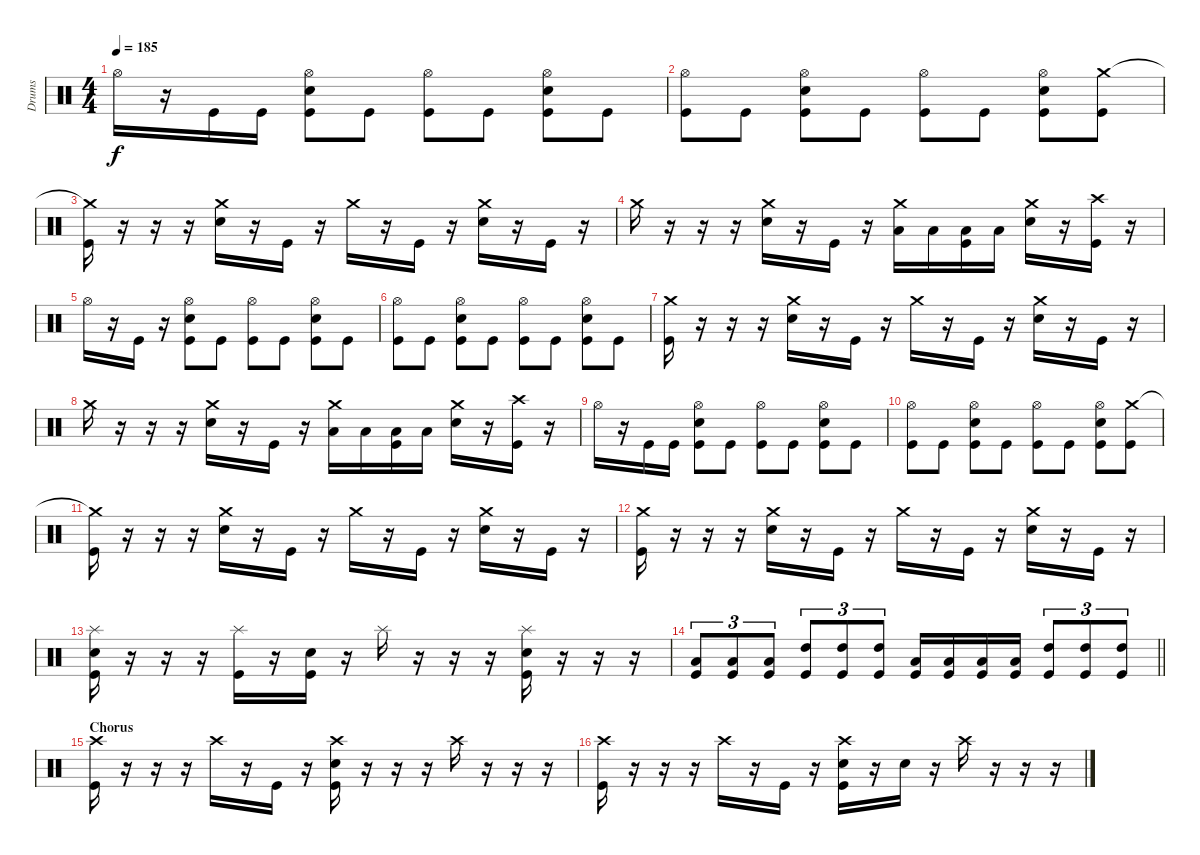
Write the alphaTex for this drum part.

\track ("Drums" "Drums") {instrument percussion}
\staff {score}
\articulation defaults
\ts (4 4)
\tempo 185
\clef neutral
\ks c "Hi-Hat (open)".16{dy f}
r.16 "Kick (hit)".16 "Kick (hit)".16 ("Hi-Hat (open)" "Snare (hit) 2" "Kick (hit)").8 "Kick (hit)".8 ("Hi-Hat (open)" "Kick (hit)").8 "Kick (hit)".8 ("Hi-Hat (open)" "Snare (hit) 2" "Kick (hit)").8 "Kick (hit)".8 |
("Hi-Hat (open)" "Kick (hit)").8 "Kick (hit)".8 ("Hi-Hat (open)" "Snare (hit) 2" "Kick (hit)").8 "Kick (hit)".8 ("Hi-Hat (open)" "Kick (hit)").8 "Kick (hit)".8 ("Hi-Hat (open)" "Snare (hit) 2" "Kick (hit)").8 ("Crash medium (hit)" "Kick (hit)").8 |
("Crash medium (hit)"{t} "Kick (hit)").16 r.16 r.16 r.16 ("Crash medium (hit)" "Snare (hit) 2").16 r.16 "Kick (hit)".16 r.16 "Crash medium (hit)".16 r.16 "Kick (hit)".16 r.16 ("Crash medium (hit)" "Snare (hit) 2").16 r.16 "Kick (hit)".16 r.16 |
"Crash medium (hit)".16 r.16 r.16 r.16 ("Crash medium (hit)" "Snare (hit) 2").16 r.16 "Kick (hit)".16 r.16 ("Crash medium (hit)" "Low Floor Tom (hit)").16 "Low Floor Tom (hit)".16 ("Low Floor Tom (hit)" "Kick (hit)").16 "Low Floor Tom (hit)".16 ("Crash medium (hit)" "Snare (hit) 2").16 r.16 ("Crash high (hit)" "Kick (hit)").16 r.16 |
"Hi-Hat (open)".16 r.16 "Kick (hit)".16 r.16 ("Hi-Hat (open)" "Snare (hit) 2" "Kick (hit)").8 "Kick (hit)".8 ("Hi-Hat (open)" "Kick (hit)").8 "Kick (hit)".8 ("Hi-Hat (open)" "Snare (hit) 2" "Kick (hit)").8 "Kick (hit)".8 |
("Hi-Hat (open)" "Kick (hit)").8 "Kick (hit)".8 ("Hi-Hat (open)" "Snare (hit) 2" "Kick (hit)").8 "Kick (hit)".8 ("Hi-Hat (open)" "Kick (hit)").8 "Kick (hit)".8 ("Hi-Hat (open)" "Snare (hit) 2" "Kick (hit)").8 "Kick (hit)".8 |
("Crash medium (hit)" "Kick (hit)").16 r.16 r.16 r.16 ("Crash medium (hit)" "Snare (hit) 2").16 r.16 "Kick (hit)".16 r.16 "Crash medium (hit)".16 r.16 "Kick (hit)".16 r.16 ("Crash medium (hit)" "Snare (hit) 2").16 r.16 "Kick (hit)".16 r.16 |
"Crash medium (hit)".16 r.16 r.16 r.16 ("Crash medium (hit)" "Snare (hit) 2").16 r.16 "Kick (hit)".16 r.16 ("Crash medium (hit)" "Low Floor Tom (hit)").16 "Low Floor Tom (hit)".16 ("Low Floor Tom (hit)" "Kick (hit)").16 "Low Floor Tom (hit)".16 ("Crash medium (hit)" "Snare (hit) 2").16 r.16 ("Crash high (hit)" "Kick (hit)").16 r.16 |
"Hi-Hat (open)".16 r.16 "Kick (hit)".16 "Kick (hit)".16 ("Hi-Hat (open)" "Snare (hit) 2" "Kick (hit)").8 "Kick (hit)".8 ("Hi-Hat (open)" "Kick (hit)").8 "Kick (hit)".8 ("Hi-Hat (open)" "Snare (hit) 2" "Kick (hit)").8 "Kick (hit)".8 |
("Hi-Hat (open)" "Kick (hit)").8 "Kick (hit)".8 ("Hi-Hat (open)" "Snare (hit) 2" "Kick (hit)").8 "Kick (hit)".8 ("Hi-Hat (open)" "Kick (hit)").8 "Kick (hit)".8 ("Hi-Hat (open)" "Snare (hit) 2" "Kick (hit)").8 ("Crash medium (hit)" "Kick (hit)").8 |
("Crash medium (hit)"{t} "Kick (hit)").16 r.16 r.16 r.16 ("Crash medium (hit)" "Snare (hit) 2").16 r.16 "Kick (hit)".16 r.16 "Crash medium (hit)".16 r.16 "Kick (hit)".16 r.16 ("Crash medium (hit)" "Snare (hit) 2").16 r.16 "Kick (hit)".16 r.16 |
("Crash medium (hit)" "Kick (hit)").16 r.16 r.16 r.16 ("Crash medium (hit)" "Snare (hit) 2").16 r.16 "Kick (hit)".16 r.16 "Crash medium (hit)".16 r.16 "Kick (hit)".16 r.16 ("Crash medium (hit)" "Snare (hit) 2").16 r.16 "Kick (hit)".16 r.16 |
("Splash (hit)" "Snare (hit) 2" "Kick (hit)").16 r.16 r.16 r.16 ("Splash (hit)" "Kick (hit)").16 r.16 ("Snare (hit) 2" "Kick (hit)").16 r.16 "Splash (hit)".16 r.16 r.16 r.16 ("Splash (hit)" "Snare (hit) 2" "Kick (hit)").16 r.16 r.16 r.16 |
\barLineRight lightlight
("Low Tom (hit)" "Kick (hit)").8{tu (3 2)} ("Low Tom (hit)" "Kick (hit)").8{tu (3 2)} ("Low Tom (hit)" "Kick (hit)").8{tu (3 2)} ("High Tom (hit)" "Kick (hit)").8{tu (3 2)} ("High Tom (hit)" "Kick (hit)").8{tu (3 2)} ("High Tom (hit)" "Kick (hit)").8{tu (3 2)} ("Low Tom (hit)" "Kick (hit)").16 ("Low Tom (hit)" "Kick (hit)").16 ("Low Tom (hit)" "Kick (hit)").16 ("Low Tom (hit)" "Kick (hit)").16 ("High Tom (hit)" "Kick (hit)").8{tu (3 2)} ("High Tom (hit)" "Kick (hit)").8{tu (3 2)} ("High Tom (hit)" "Kick (hit)").8{tu (3 2)} |
\section ("" "Chorus")
("Crash high (hit)" "Kick (hit)").16 r.16 r.16 r.16 "Crash high (hit)".16 r.16 "Kick (hit)".16 r.16 ("Crash high (hit)" "Snare (hit) 2" "Kick (hit)").16 r.16 r.16 r.16 "Crash high (hit)".16 r.16 r.16 r.16 |
("Crash high (hit)" "Kick (hit)").16 r.16 r.16 r.16 "Crash high (hit)".16 r.16 "Kick (hit)".16 r.16 ("Crash high (hit)" "Snare (hit) 2" "Kick (hit)").16 r.16 "Snare (hit) 2".16 r.16 "Crash high (hit)".16 r.16 r.16 r.16
